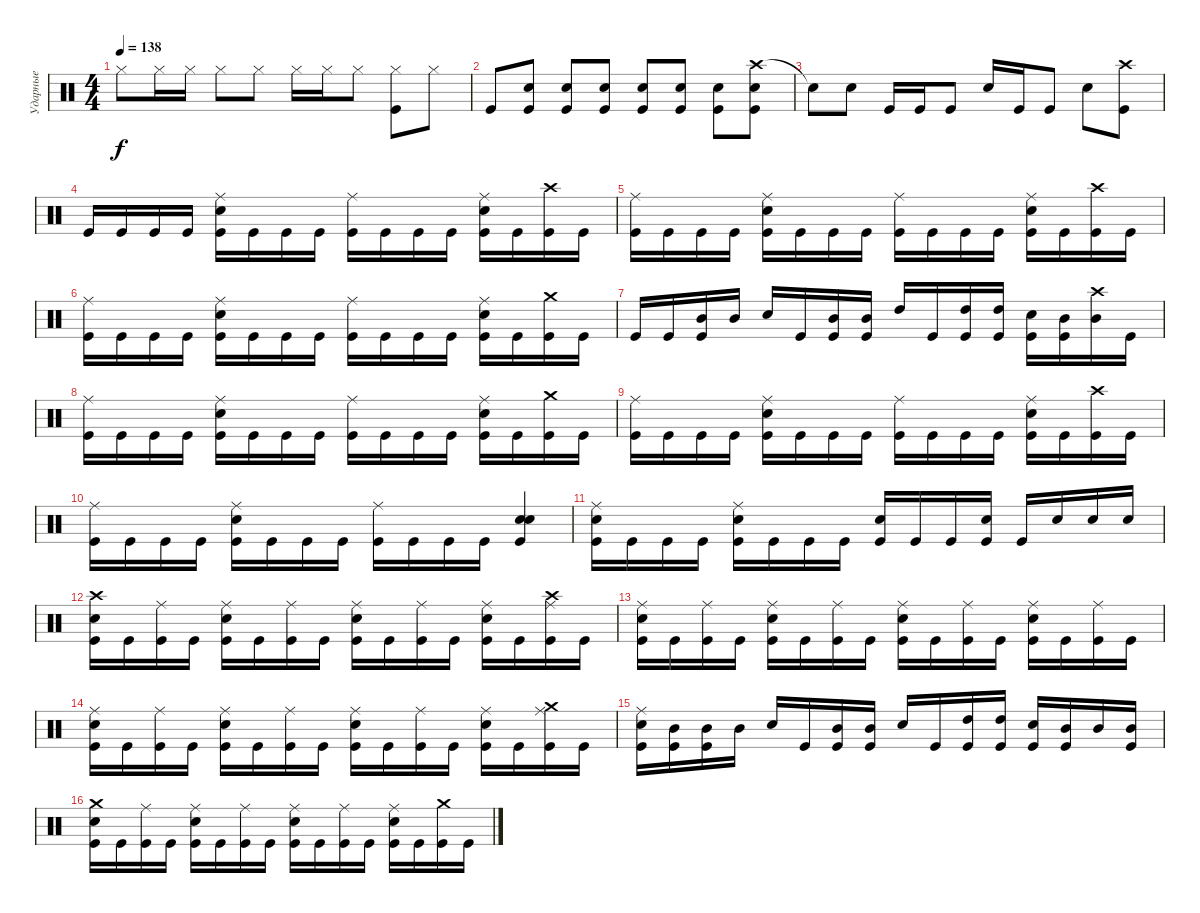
\track ("Ударные" "Ударные") {instrument percussion}
\staff {score}
\articulation defaults
\ts (4 4)
\tempo 138
\clef neutral
\ks c "Hi-Hat (closed)".8{dy f} "Hi-Hat (closed)".16 "Hi-Hat (closed)".16 "Hi-Hat (closed)".8 "Hi-Hat (closed)".8 "Hi-Hat (closed)".16 "Hi-Hat (closed)".16 "Hi-Hat (closed)".8
("Hi-Hat (closed)" "Kick (hit)").8 "Hi-Hat (closed)".8 |
"Kick (hit)".8 ("Electric Snare (hit)" "Kick (hit)").8 ("Electric Snare (hit)" "Kick (hit)").8 ("Electric Snare (hit)" "Kick (hit)").8 ("Electric Snare (hit)" "Kick (hit)").8 ("Electric Snare (hit)" "Kick (hit)").8 ("Electric Snare (hit)" "Kick (hit)").8 ("Crash high (hit)" "Electric Snare (hit)" "Kick (hit)").8 |
"Snare (hit)"{t}.8 "Electric Snare (hit)".8 "Kick (hit)".16 "Kick (hit)".16 "Kick (hit)".8 "Electric Snare (hit)".16 "Kick (hit)".16 "Kick (hit)".8 "Electric Snare (hit)".8 ("Crash high (hit)" "Kick (hit)").8 |
"Kick (hit)".16 "Kick (hit)".16 "Kick (hit)".16 "Kick (hit)".16 ("Ride (middle)" "Electric Snare (hit)" "Kick (hit)").16 "Kick (hit)".16 "Kick (hit)".16 "Kick (hit)".16 ("Ride (middle)" "Kick (hit)").16 "Kick (hit)".16 "Kick (hit)".16 "Kick (hit)".16 ("Ride (middle)" "Electric Snare (hit)" "Kick (hit)").16 "Kick (hit)".16 ("Crash high (hit)" "Kick (hit)").16 "Kick (hit)".16 |
("Ride (middle)" "Kick (hit)").16 "Kick (hit)".16 "Kick (hit)".16 "Kick (hit)".16 ("Ride (middle)" "Electric Snare (hit)" "Kick (hit)").16 "Kick (hit)".16 "Kick (hit)".16 "Kick (hit)".16 ("Ride (middle)" "Kick (hit)").16 "Kick (hit)".16 "Kick (hit)".16 "Kick (hit)".16 ("Ride (middle)" "Electric Snare (hit)" "Kick (hit)").16 "Kick (hit)".16 ("Crash high (hit)" "Kick (hit)").16 "Kick (hit)".16 |
("Ride (middle)" "Kick (hit)").16 "Kick (hit)".16 "Kick (hit)".16 "Kick (hit)".16 ("Ride (middle)" "Electric Snare (hit)" "Kick (hit)").16 "Kick (hit)".16 "Kick (hit)".16 "Kick (hit)".16 ("Ride (middle)" "Kick (hit)").16 "Kick (hit)".16 "Kick (hit)".16 "Kick (hit)".16 ("Ride (middle)" "Electric Snare (hit)" "Kick (hit)").16 "Kick (hit)".16 ("Crash medium (hit)" "Kick (hit)").16 "Kick (hit)".16 |
"Kick (hit)".16 "Kick (hit)".16 ("Mid Tom (hit)" "Kick (hit)").16 "Mid Tom (hit)".16 "Electric Snare (hit)".16 "Kick (hit)".16 ("Mid Tom (hit)" "Kick (hit)").16 ("Mid Tom (hit)" "Kick (hit)").16 "High Tom (hit)".16 "Kick (hit)".16 ("High Tom (hit)" "Kick (hit)").16 ("High Tom (hit)" "Kick (hit)").16 ("Electric Snare (hit)" "Kick (hit)").16 ("Mid Tom (hit)" "Kick (hit)").16 ("Crash high (hit)" "Mid Tom (hit)").16 "Kick (hit)".16 |
("Ride (middle)" "Kick (hit)").16 "Kick (hit)".16 "Kick (hit)".16 "Kick (hit)".16 ("Ride (middle)" "Electric Snare (hit)" "Kick (hit)").16 "Kick (hit)".16 "Kick (hit)".16 "Kick (hit)".16 ("Ride (middle)" "Kick (hit)").16 "Kick (hit)".16 "Kick (hit)".16 "Kick (hit)".16 ("Ride (middle)" "Electric Snare (hit)" "Kick (hit)").16 "Kick (hit)".16 ("Crash medium (hit)" "Kick (hit)").16 "Kick (hit)".16 |
("Ride (middle)" "Kick (hit)").16 "Kick (hit)".16 "Kick (hit)".16 "Kick (hit)".16 ("Ride (middle)" "Electric Snare (hit)" "Kick (hit)").16 "Kick (hit)".16 "Kick (hit)".16 "Kick (hit)".16 ("Ride (middle)" "Kick (hit)").16 "Kick (hit)".16 "Kick (hit)".16 "Kick (hit)".16 ("Ride (middle)" "Electric Snare (hit)" "Kick (hit)").16 "Kick (hit)".16 ("Crash high (hit)" "Kick (hit)").16 "Kick (hit)".16 |
("Ride (middle)" "Kick (hit)").16 "Kick (hit)".16 "Kick (hit)".16 "Kick (hit)".16 ("Ride (middle)" "Electric Snare (hit)" "Kick (hit)").16 "Kick (hit)".16 "Kick (hit)".16 "Kick (hit)".16 ("Ride (middle)" "Kick (hit)").16 "Kick (hit)".16 "Kick (hit)".16 "Kick (hit)".16 ("Electric Snare (hit)" "Electric Snare (hit)" "Kick (hit)").4 |
("Ride (middle)" "Electric Snare (hit)" "Kick (hit)").16 "Kick (hit)".16 "Kick (hit)".16 "Kick (hit)".16 ("Ride (middle)" "Electric Snare (hit)" "Kick (hit)").16 "Kick (hit)".16 "Kick (hit)".16 "Kick (hit)".16 ("Electric Snare (hit)" "Kick (hit)").16 "Kick (hit)".16 "Kick (hit)".16 ("Electric Snare (hit)" "Kick (hit)").16 "Kick (hit)".16 "Electric Snare (hit)".16 "Electric Snare (hit)".16 "Electric Snare (hit)".16 |
("Crash high (hit)" "Electric Snare (hit)" "Kick (hit)").16 "Kick (hit)".16 ("Ride (middle)" "Kick (hit)").16 "Kick (hit)".16 ("Ride (middle)" "Electric Snare (hit)" "Kick (hit)").16 "Kick (hit)".16 ("Ride (middle)" "Kick (hit)").16 "Kick (hit)".16 ("Ride (middle)" "Electric Snare (hit)" "Kick (hit)").16 "Kick (hit)".16 ("Ride (middle)" "Kick (hit)").16 "Kick (hit)".16 ("Ride (middle)" "Electric Snare (hit)" "Kick (hit)").16 "Kick (hit)".16 ("Crash high (hit)" "Ride (middle)" "Kick (hit)").16 "Kick (hit)".16 |
("Ride (middle)" "Electric Snare (hit)" "Kick (hit)").16 "Kick (hit)".16 ("Ride (middle)" "Kick (hit)").16 "Kick (hit)".16 ("Ride (middle)" "Electric Snare (hit)" "Kick (hit)").16 "Kick (hit)".16 ("Ride (middle)" "Kick (hit)").16 "Kick (hit)".16 ("Ride (middle)" "Electric Snare (hit)" "Kick (hit)").16 "Kick (hit)".16 ("Ride (middle)" "Kick (hit)").16 "Kick (hit)".16 ("Ride (middle)" "Electric Snare (hit)" "Kick (hit)").16 "Kick (hit)".16 ("Ride (middle)" "Kick (hit)").16 "Kick (hit)".16 |
("Ride (middle)" "Electric Snare (hit)" "Kick (hit)").16 "Kick (hit)".16 ("Ride (middle)" "Kick (hit)").16 "Kick (hit)".16 ("Ride (middle)" "Electric Snare (hit)" "Kick (hit)").16 "Kick (hit)".16 ("Ride (middle)" "Kick (hit)").16 "Kick (hit)".16 ("Ride (middle)" "Electric Snare (hit)" "Kick (hit)").16 "Kick (hit)".16 ("Ride (middle)" "Kick (hit)").16 "Kick (hit)".16 ("Ride (middle)" "Electric Snare (hit)" "Kick (hit)").16 "Kick (hit)".16 ("Crash medium (hit)" "Ride (middle)" "Kick (hit)").16 "Kick (hit)".16 |
("Ride (middle)" "Electric Snare (hit)" "Kick (hit)").16 ("Mid Tom (hit)" "Kick (hit)").16 ("Mid Tom (hit)" "Kick (hit)").16 "Mid Tom (hit)".16 "Electric Snare (hit)".16 "Kick (hit)".16 ("Mid Tom (hit)" "Kick (hit)").16 ("Mid Tom (hit)" "Kick (hit)").16 "Electric Snare (hit)".16 "Kick (hit)".16 ("High Tom (hit)" "Kick (hit)").16 ("High Tom (hit)" "Kick (hit)").16 ("Electric Snare (hit)" "Kick (hit)").16 ("Mid Tom (hit)" "Kick (hit)").16 "Mid Tom (hit)".16 ("Mid Tom (hit)" "Kick (hit)").16 |
("Electric Snare (hit)" "Crash medium (hit)" "Kick (hit)").16 "Kick (hit)".16 ("Ride (middle)" "Kick (hit)").16 "Kick (hit)".16 ("Ride (middle)" "Electric Snare (hit)" "Kick (hit)").16 "Kick (hit)".16 ("Ride (middle)" "Kick (hit)").16 "Kick (hit)".16 ("Ride (middle)" "Electric Snare (hit)" "Kick (hit)").16 "Kick (hit)".16 ("Ride (middle)" "Kick (hit)").16 "Kick (hit)".16 ("Ride (middle)" "Electric Snare (hit)" "Kick (hit)").16 "Kick (hit)".16 ("Crash medium (hit)" "Kick (hit)").16 "Kick (hit)".16
